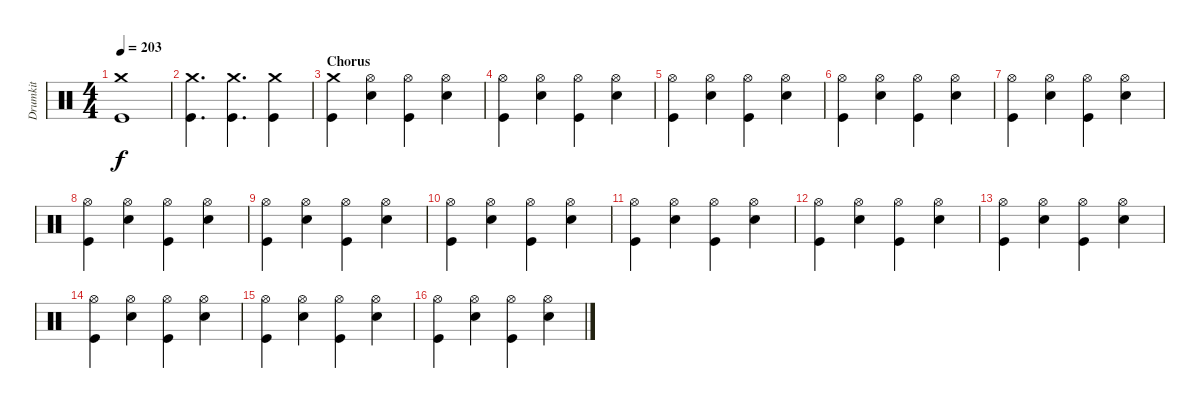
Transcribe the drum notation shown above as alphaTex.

\track ("Drumkit" "Drumkit") {instrument percussion}
\staff {score}
\articulation defaults
\ts (4 4)
\tempo 203
\clef neutral
\ks c
("Kick (hit)" "Crash medium (hit)").1{dy f} |
("Kick (hit)" "Crash medium (hit)").4{d} ("Kick (hit)" "Crash medium (hit)").4{d} ("Kick (hit)" "Crash medium (hit)").4 |
\section ("" "Chorus")
("Kick (hit)" "Crash medium (hit)").4 ("Snare (hit) 2" "Hi-Hat (open)").4 ("Kick (hit)" "Hi-Hat (open)").4 ("Snare (hit) 2" "Hi-Hat (open)").4 |
("Kick (hit)" "Hi-Hat (open)").4 ("Snare (hit) 2" "Hi-Hat (open)").4 ("Kick (hit)" "Hi-Hat (open)").4 ("Snare (hit) 2" "Hi-Hat (open)").4 |
("Kick (hit)" "Hi-Hat (open)").4 ("Snare (hit) 2" "Hi-Hat (open)").4 ("Kick (hit)" "Hi-Hat (open)").4 ("Snare (hit) 2" "Hi-Hat (open)").4 |
("Kick (hit)" "Hi-Hat (open)").4 ("Snare (hit) 2" "Hi-Hat (open)").4 ("Kick (hit)" "Hi-Hat (open)").4 ("Snare (hit) 2" "Hi-Hat (open)").4 |
("Kick (hit)" "Hi-Hat (open)").4 ("Snare (hit) 2" "Hi-Hat (open)").4 ("Kick (hit)" "Hi-Hat (open)").4 ("Snare (hit) 2" "Hi-Hat (open)").4 |
("Kick (hit)" "Hi-Hat (open)").4 ("Snare (hit) 2" "Hi-Hat (open)").4 ("Kick (hit)" "Hi-Hat (open)").4 ("Snare (hit) 2" "Hi-Hat (open)").4 |
("Kick (hit)" "Hi-Hat (open)").4 ("Snare (hit) 2" "Hi-Hat (open)").4 ("Kick (hit)" "Hi-Hat (open)").4 ("Snare (hit) 2" "Hi-Hat (open)").4 |
("Kick (hit)" "Hi-Hat (open)").4 ("Snare (hit) 2" "Hi-Hat (open)").4 ("Kick (hit)" "Hi-Hat (open)").4 ("Snare (hit) 2" "Hi-Hat (open)").4 |
("Kick (hit)" "Hi-Hat (open)").4 ("Snare (hit) 2" "Hi-Hat (open)").4 ("Kick (hit)" "Hi-Hat (open)").4 ("Snare (hit) 2" "Hi-Hat (open)").4 |
("Kick (hit)" "Hi-Hat (open)").4 ("Snare (hit) 2" "Hi-Hat (open)").4 ("Kick (hit)" "Hi-Hat (open)").4 ("Snare (hit) 2" "Hi-Hat (open)").4 |
("Kick (hit)" "Hi-Hat (open)").4 ("Snare (hit) 2" "Hi-Hat (open)").4 ("Kick (hit)" "Hi-Hat (open)").4 ("Snare (hit) 2" "Hi-Hat (open)").4 |
("Kick (hit)" "Hi-Hat (open)").4 ("Snare (hit) 2" "Hi-Hat (open)").4 ("Kick (hit)" "Hi-Hat (open)").4 ("Snare (hit) 2" "Hi-Hat (open)").4 |
("Kick (hit)" "Hi-Hat (open)").4 ("Snare (hit) 2" "Hi-Hat (open)").4 ("Kick (hit)" "Hi-Hat (open)").4 ("Snare (hit) 2" "Hi-Hat (open)").4 |
("Kick (hit)" "Hi-Hat (open)").4 ("Snare (hit) 2" "Hi-Hat (open)").4 ("Kick (hit)" "Hi-Hat (open)").4 ("Snare (hit) 2" "Hi-Hat (open)").4
